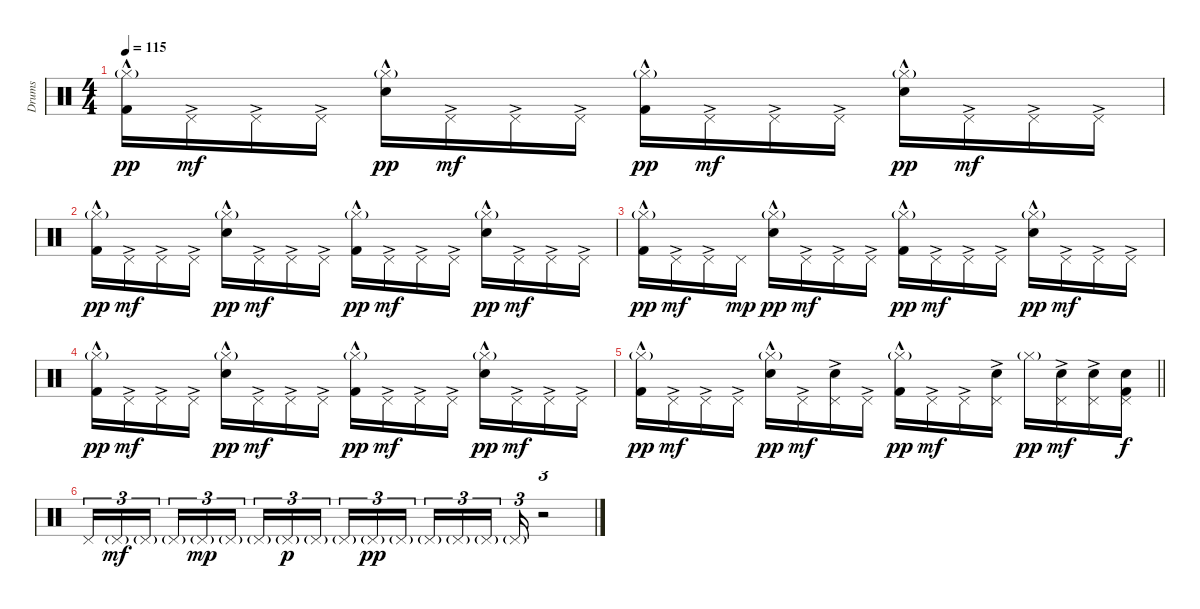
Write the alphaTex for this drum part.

\track ("Drums" "Drums") {instrument percussion}
\staff {score}
\articulation defaults
\ts (4 4)
\tempo 115
\clef neutral
\ks c
("Hi-Hat (closed)"{g} "Kick (hit) 2"{hac}).16{dy pp} "Pedal Hi-Hat (hit)"{ac}.16{dy mf} "Pedal Hi-Hat (hit)"{ac}.16 "Pedal Hi-Hat (hit)"{ac}.16 ("Hi-Hat (closed)"{g} "Electric Snare (hit)"{hac}).16{dy pp} "Pedal Hi-Hat (hit)"{ac}.16{dy mf} "Pedal Hi-Hat (hit)"{ac}.16 "Pedal Hi-Hat (hit)"{ac}.16 ("Hi-Hat (closed)"{g} "Kick (hit) 2"{hac}).16{dy pp} "Pedal Hi-Hat (hit)"{ac}.16{dy mf} "Pedal Hi-Hat (hit)"{ac}.16 "Pedal Hi-Hat (hit)"{ac}.16 ("Hi-Hat (closed)"{g} "Electric Snare (hit)"{hac}).16{dy pp} "Pedal Hi-Hat (hit)"{ac}.16{dy mf} "Pedal Hi-Hat (hit)"{ac}.16 "Pedal Hi-Hat (hit)"{ac}.16 |
("Hi-Hat (closed)"{g} "Kick (hit) 2"{hac}).16{dy pp} "Pedal Hi-Hat (hit)"{ac}.16{dy mf} "Pedal Hi-Hat (hit)"{ac}.16 "Pedal Hi-Hat (hit)"{ac}.16 ("Hi-Hat (closed)"{g} "Electric Snare (hit)"{hac}).16{dy pp} "Pedal Hi-Hat (hit)"{ac}.16{dy mf} "Pedal Hi-Hat (hit)"{ac}.16 "Pedal Hi-Hat (hit)"{ac}.16 ("Hi-Hat (closed)"{g} "Kick (hit) 2"{hac}).16{dy pp} "Pedal Hi-Hat (hit)"{ac}.16{dy mf} "Pedal Hi-Hat (hit)"{ac}.16 "Pedal Hi-Hat (hit)"{ac}.16 ("Hi-Hat (closed)"{g} "Electric Snare (hit)"{hac}).16{dy pp} "Pedal Hi-Hat (hit)"{ac}.16{dy mf} "Pedal Hi-Hat (hit)"{ac}.16 "Pedal Hi-Hat (hit)"{ac}.16 |
("Hi-Hat (closed)"{g} "Kick (hit) 2"{hac}).16{dy pp} "Pedal Hi-Hat (hit)"{ac}.16{dy mf} "Pedal Hi-Hat (hit)"{ac}.16 "Pedal Hi-Hat (hit)".16{dy mp} ("Hi-Hat (closed)"{g} "Electric Snare (hit)"{hac}).16{dy pp} "Pedal Hi-Hat (hit)"{ac}.16{dy mf} "Pedal Hi-Hat (hit)"{ac}.16 "Pedal Hi-Hat (hit)"{ac}.16 ("Hi-Hat (closed)"{g} "Kick (hit) 2"{hac}).16{dy pp} "Pedal Hi-Hat (hit)"{ac}.16{dy mf} "Pedal Hi-Hat (hit)"{ac}.16 "Pedal Hi-Hat (hit)"{ac}.16 ("Hi-Hat (closed)"{g} "Electric Snare (hit)"{hac}).16{dy pp} "Pedal Hi-Hat (hit)"{ac}.16{dy mf} "Pedal Hi-Hat (hit)"{ac}.16 "Pedal Hi-Hat (hit)"{ac}.16 |
("Hi-Hat (closed)"{g} "Kick (hit) 2"{hac}).16{dy pp} "Pedal Hi-Hat (hit)"{ac}.16{dy mf} "Pedal Hi-Hat (hit)"{ac}.16 "Pedal Hi-Hat (hit)"{ac}.16 ("Hi-Hat (closed)"{g} "Electric Snare (hit)"{hac}).16{dy pp} "Pedal Hi-Hat (hit)"{ac}.16{dy mf} "Pedal Hi-Hat (hit)"{ac}.16 "Pedal Hi-Hat (hit)"{ac}.16 ("Hi-Hat (closed)"{g} "Kick (hit) 2"{hac}).16{dy pp} "Pedal Hi-Hat (hit)"{ac}.16{dy mf} "Pedal Hi-Hat (hit)"{ac}.16 "Pedal Hi-Hat (hit)"{ac}.16 ("Hi-Hat (closed)"{g} "Electric Snare (hit)"{hac}).16{dy pp} "Pedal Hi-Hat (hit)"{ac}.16{dy mf} "Pedal Hi-Hat (hit)"{ac}.16 "Pedal Hi-Hat (hit)"{ac}.16 |
\barLineRight lightlight
("Hi-Hat (closed)"{g} "Kick (hit) 2"{hac}).16{dy pp} "Pedal Hi-Hat (hit)"{ac}.16{dy mf} "Pedal Hi-Hat (hit)"{ac}.16 "Pedal Hi-Hat (hit)"{ac}.16 ("Hi-Hat (closed)"{g} "Electric Snare (hit)"{hac}).16{dy pp} "Pedal Hi-Hat (hit)"{ac}.16{dy mf} ("Pedal Hi-Hat (hit)"{ac} "Electric Snare (hit)").16 "Pedal Hi-Hat (hit)"{ac}.16 ("Hi-Hat (closed)"{g} "Kick (hit) 2"{hac}).16{dy pp} "Pedal Hi-Hat (hit)"{ac}.16{dy mf} "Pedal Hi-Hat (hit)"{ac}.16 ("Pedal Hi-Hat (hit)"{ac} "Electric Snare (hit)").16 "Hi-Hat (closed)"{g}.16{dy pp} ("Pedal Hi-Hat (hit)"{ac} "Electric Snare (hit)").16{dy mf} ("Pedal Hi-Hat (hit)"{ac} "Electric Snare (hit)").16 ("Pedal Hi-Hat (hit)" "Electric Snare (hit)" "Kick (hit) 2").16{dy f} |
"Pedal Hi-Hat (hit)".16{tu (3 2)} "Pedal Hi-Hat (hit)"{g}.16{tu (3 2) dy mf} "Pedal Hi-Hat (hit)"{g}.16{tu (3 2) beam splitsecondary} "Pedal Hi-Hat (hit)"{g}.16{tu (3 2)} "Pedal Hi-Hat (hit)"{g}.16{tu (3 2) dy mp} "Pedal Hi-Hat (hit)"{g}.16{tu (3 2)} "Pedal Hi-Hat (hit)"{g}.16{tu (3 2)} "Pedal Hi-Hat (hit)"{g}.16{tu (3 2) dy p} "Pedal Hi-Hat (hit)"{g}.16{tu (3 2) beam splitsecondary} "Pedal Hi-Hat (hit)"{g}.16{tu (3 2)} "Pedal Hi-Hat (hit)"{g}.16{tu (3 2) dy pp} "Pedal Hi-Hat (hit)"{g}.16{tu (3 2)} "Pedal Hi-Hat (hit)"{g}.16{tu (3 2)} "Pedal Hi-Hat (hit)"{g}.16{tu (3 2)} "Pedal Hi-Hat (hit)"{g}.16{tu (3 2) beam splitsecondary} "Pedal Hi-Hat (hit)"{g}.16{tu (3 2)} r.2{tu (3 2)}
